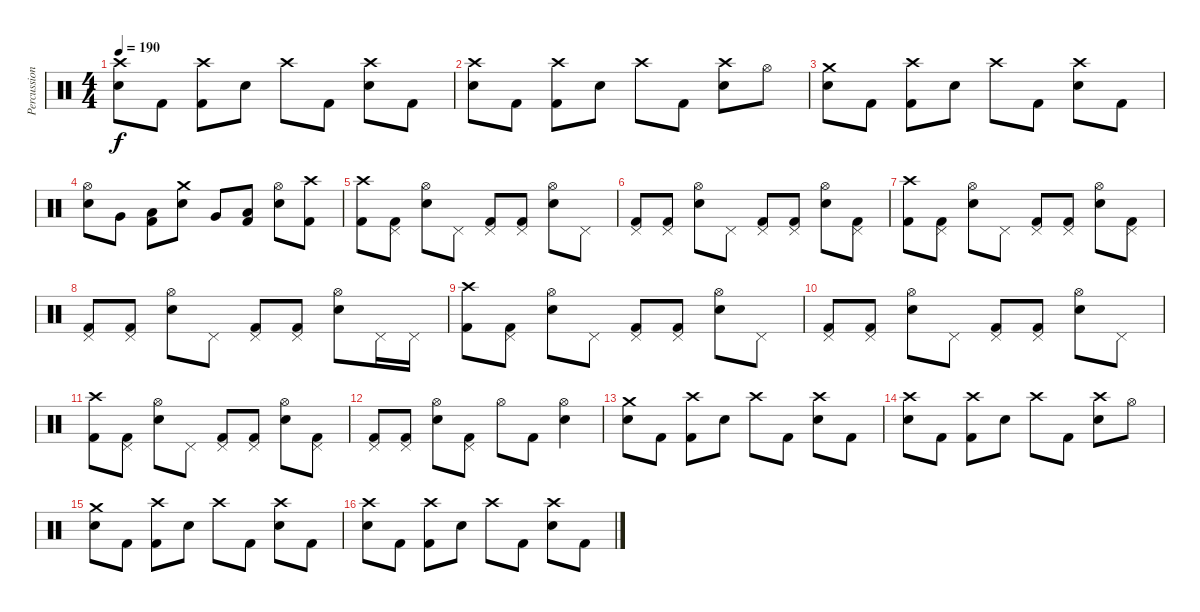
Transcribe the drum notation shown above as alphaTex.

\track ("Percussions" "Percussion") {instrument percussion}
\staff {score}
\articulation defaults
\ts (4 4)
\tempo 190
\clef neutral
\ks c
("Crash high (hit)" "Electric Snare (hit)").8{dy f} "Kick (hit) 2".8 ("Crash high (hit)" "Kick (hit) 2").8 "Electric Snare (hit)".8 "Crash high (hit)".8 "Kick (hit) 2".8 ("Crash high (hit)" "Electric Snare (hit)").8 "Kick (hit) 2".8 |
("Crash high (hit)" "Electric Snare (hit)").8 "Kick (hit) 2".8 ("Crash high (hit)" "Kick (hit) 2").8 "Electric Snare (hit)".8 "Crash high (hit)".8 "Kick (hit) 2".8 ("Crash high (hit)" "Electric Snare (hit)").8 "Hi-Hat (open)".8 |
("Crash medium (hit)" "Electric Snare (hit)").8 "Kick (hit) 2".8 ("Crash high (hit)" "Kick (hit) 2").8 "Electric Snare (hit)".8 "Crash high (hit)".8 "Kick (hit) 2".8 ("Crash high (hit)" "Electric Snare (hit)").8 "Kick (hit) 2".8 |
("Hi-Hat (open)" "Electric Snare (hit)").8 "Very Low Tom (hit)".8 ("Low Floor Tom (hit)" "Kick (hit) 2").8 ("Crash medium (hit)" "Electric Snare (hit)").8 "Very Low Tom (hit)".8 ("Low Floor Tom (hit)" "Kick (hit) 2").8 ("Hi-Hat (open)" "Electric Snare (hit)").8 ("Crash high (hit)" "Kick (hit) 2").8 |
("Crash high (hit)" "Kick (hit) 2").8 ("Pedal Hi-Hat (hit)" "Kick (hit) 2").8 ("Hi-Hat (open)" "Electric Snare (hit)").8 "Pedal Hi-Hat (hit)".8 ("Pedal Hi-Hat (hit)" "Kick (hit) 2").8 ("Pedal Hi-Hat (hit)" "Kick (hit) 2").8 ("Hi-Hat (open)" "Electric Snare (hit)").8 "Pedal Hi-Hat (hit)".8 |
("Pedal Hi-Hat (hit)" "Kick (hit) 2").8 ("Pedal Hi-Hat (hit)" "Kick (hit) 2").8 ("Hi-Hat (open)" "Electric Snare (hit)").8 "Pedal Hi-Hat (hit)".8 ("Pedal Hi-Hat (hit)" "Kick (hit) 2").8 ("Pedal Hi-Hat (hit)" "Kick (hit) 2").8 ("Hi-Hat (open)" "Electric Snare (hit)").8 ("Pedal Hi-Hat (hit)" "Kick (hit) 2").8 |
("Crash high (hit)" "Kick (hit) 2").8 ("Pedal Hi-Hat (hit)" "Kick (hit) 2").8 ("Hi-Hat (open)" "Electric Snare (hit)").8 "Pedal Hi-Hat (hit)".8 ("Pedal Hi-Hat (hit)" "Kick (hit) 2").8 ("Pedal Hi-Hat (hit)" "Kick (hit) 2").8 ("Hi-Hat (open)" "Electric Snare (hit)").8 ("Pedal Hi-Hat (hit)" "Kick (hit) 2").8 |
("Pedal Hi-Hat (hit)" "Kick (hit) 2").8 ("Pedal Hi-Hat (hit)" "Kick (hit) 2").8 ("Hi-Hat (open)" "Electric Snare (hit)").8 "Pedal Hi-Hat (hit)".8 ("Pedal Hi-Hat (hit)" "Kick (hit) 2").8 ("Pedal Hi-Hat (hit)" "Kick (hit) 2").8 ("Hi-Hat (open)" "Electric Snare (hit)").8 "Pedal Hi-Hat (hit)".16 "Pedal Hi-Hat (hit)".16 |
("Crash high (hit)" "Kick (hit) 2").8 ("Pedal Hi-Hat (hit)" "Kick (hit) 2").8 ("Hi-Hat (open)" "Electric Snare (hit)").8 "Pedal Hi-Hat (hit)".8 ("Pedal Hi-Hat (hit)" "Kick (hit) 2").8 ("Pedal Hi-Hat (hit)" "Kick (hit) 2").8 ("Hi-Hat (open)" "Electric Snare (hit)").8 "Pedal Hi-Hat (hit)".8 |
("Pedal Hi-Hat (hit)" "Kick (hit) 2").8 ("Pedal Hi-Hat (hit)" "Kick (hit) 2").8 ("Hi-Hat (open)" "Electric Snare (hit)").8 "Pedal Hi-Hat (hit)".8 ("Pedal Hi-Hat (hit)" "Kick (hit) 2").8 ("Pedal Hi-Hat (hit)" "Kick (hit) 2").8 ("Hi-Hat (open)" "Electric Snare (hit)").8 "Pedal Hi-Hat (hit)".8 |
("Crash high (hit)" "Kick (hit) 2").8 ("Pedal Hi-Hat (hit)" "Kick (hit) 2").8 ("Hi-Hat (open)" "Electric Snare (hit)").8 "Pedal Hi-Hat (hit)".8 ("Pedal Hi-Hat (hit)" "Kick (hit) 2").8 ("Pedal Hi-Hat (hit)" "Kick (hit) 2").8 ("Hi-Hat (open)" "Electric Snare (hit)").8 ("Pedal Hi-Hat (hit)" "Kick (hit) 2").8 |
("Pedal Hi-Hat (hit)" "Kick (hit) 2").8 ("Pedal Hi-Hat (hit)" "Kick (hit) 2").8 ("Hi-Hat (open)" "Electric Snare (hit)").8 ("Pedal Hi-Hat (hit)" "Kick (hit) 2").8 "Hi-Hat (open)".8 "Kick (hit) 2".8 ("Hi-Hat (open)" "Electric Snare (hit)").4 |
("Crash medium (hit)" "Electric Snare (hit)").8 "Kick (hit) 2".8 ("Crash high (hit)" "Kick (hit) 2").8 "Electric Snare (hit)".8 "Crash high (hit)".8 "Kick (hit) 2".8 ("Crash high (hit)" "Electric Snare (hit)").8 "Kick (hit) 2".8 |
("Crash high (hit)" "Electric Snare (hit)").8 "Kick (hit) 2".8 ("Crash high (hit)" "Kick (hit) 2").8 "Electric Snare (hit)".8 "Crash high (hit)".8 "Kick (hit) 2".8 ("Crash high (hit)" "Electric Snare (hit)").8 "Hi-Hat (open)".8 |
("Crash medium (hit)" "Electric Snare (hit)").8 "Kick (hit) 2".8 ("Crash high (hit)" "Kick (hit) 2").8 "Electric Snare (hit)".8 "Crash high (hit)".8 "Kick (hit) 2".8 ("Crash high (hit)" "Electric Snare (hit)").8 "Kick (hit) 2".8 |
("Crash high (hit)" "Electric Snare (hit)").8 "Kick (hit) 2".8 ("Crash high (hit)" "Kick (hit) 2").8 "Electric Snare (hit)".8 "Crash high (hit)".8 "Kick (hit) 2".8 ("Crash high (hit)" "Electric Snare (hit)").8 "Kick (hit) 2".8
